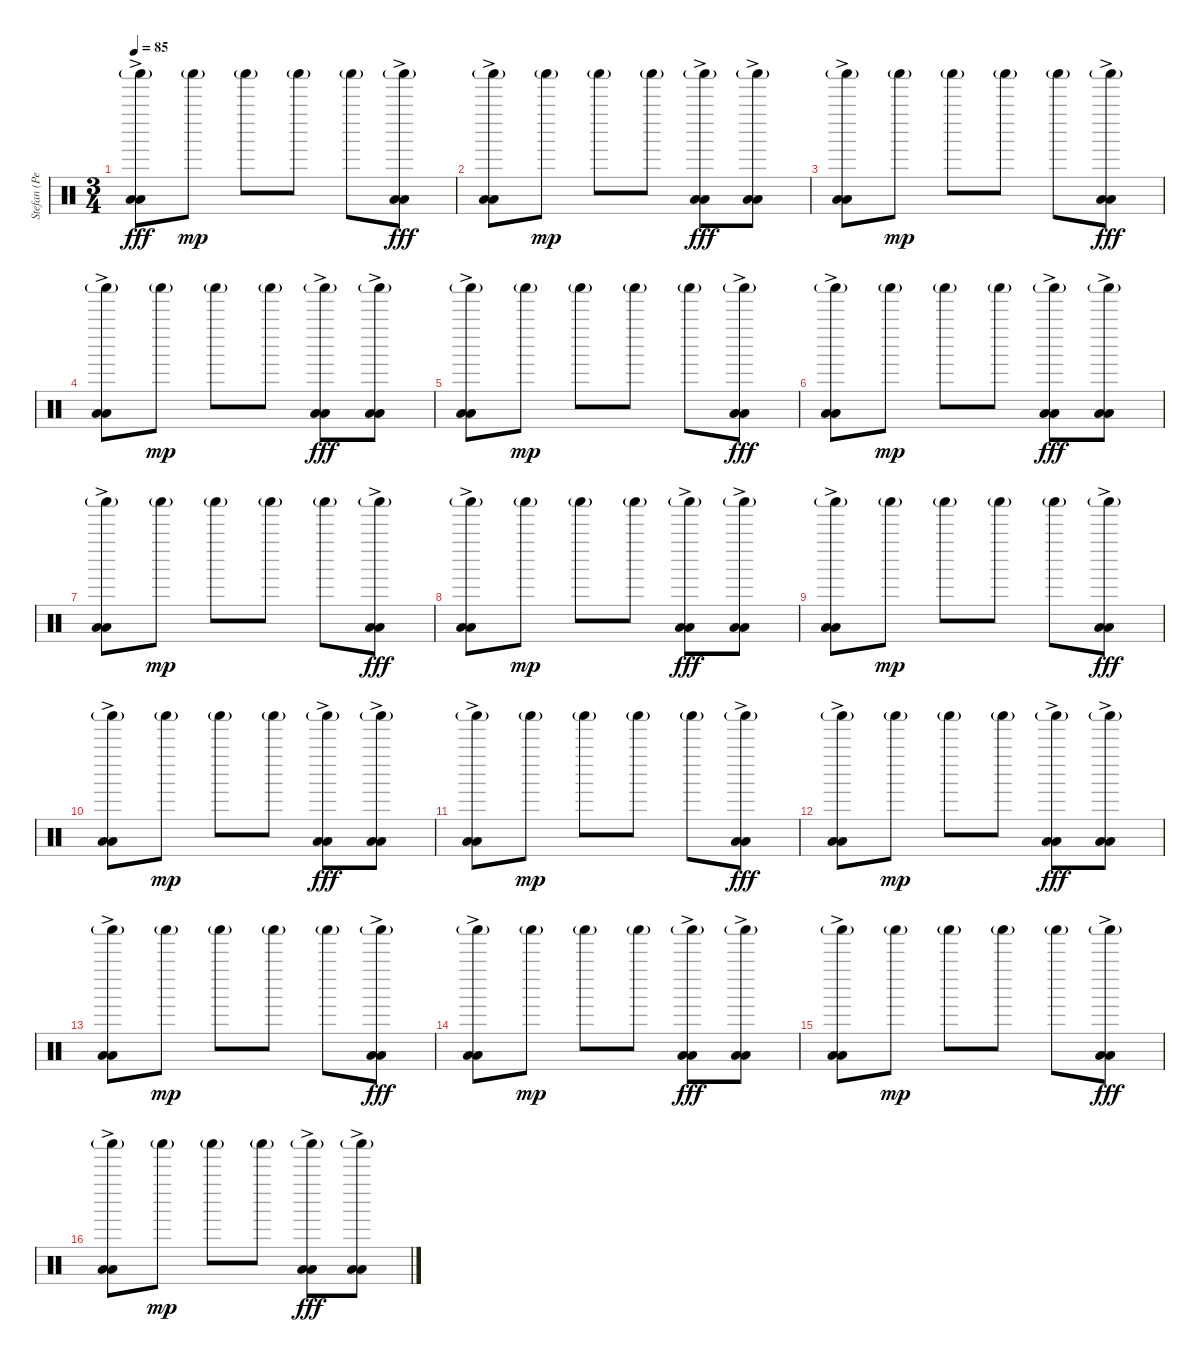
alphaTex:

\track ("Stefan (Percussion)" "Stefan (Pe") {instrument percussion}
\staff {score}
\articulation defaults
\ts (3 4)
\tempo 85
\clef neutral
\ks c
("Shaker (hit)"{g} "Low Floor Tom (hit)"{ac} "Low Floor Tom (hit)"{ac}).8{dy fff} "Shaker (hit)"{g}.8{dy mp} "Shaker (hit)"{g}.8 "Shaker (hit)"{g}.8 "Shaker (hit)"{g}.8 ("Shaker (hit)"{g} "Low Floor Tom (hit)"{ac} "Low Floor Tom (hit)"{ac}).8{dy fff} |
("Shaker (hit)"{g} "Low Floor Tom (hit)"{ac} "Low Floor Tom (hit)"{ac}).8 "Shaker (hit)"{g}.8{dy mp} "Shaker (hit)"{g}.8 "Shaker (hit)"{g}.8 ("Shaker (hit)"{g} "Low Floor Tom (hit)"{ac} "Low Floor Tom (hit)"{ac}).8{dy fff} ("Shaker (hit)"{g} "Low Floor Tom (hit)"{ac} "Low Floor Tom (hit)"{ac}).8 |
("Shaker (hit)"{g} "Low Floor Tom (hit)"{ac} "Low Floor Tom (hit)"{ac}).8 "Shaker (hit)"{g}.8{dy mp} "Shaker (hit)"{g}.8 "Shaker (hit)"{g}.8 "Shaker (hit)"{g}.8 ("Shaker (hit)"{g} "Low Floor Tom (hit)"{ac} "Low Floor Tom (hit)"{ac}).8{dy fff} |
("Shaker (hit)"{g} "Low Floor Tom (hit)"{ac} "Low Floor Tom (hit)"{ac}).8 "Shaker (hit)"{g}.8{dy mp} "Shaker (hit)"{g}.8 "Shaker (hit)"{g}.8 ("Shaker (hit)"{g} "Low Floor Tom (hit)"{ac} "Low Floor Tom (hit)"{ac}).8{dy fff} ("Shaker (hit)"{g} "Low Floor Tom (hit)"{ac} "Low Floor Tom (hit)"{ac}).8 |
("Shaker (hit)"{g} "Low Floor Tom (hit)"{ac} "Low Floor Tom (hit)"{ac}).8 "Shaker (hit)"{g}.8{dy mp} "Shaker (hit)"{g}.8 "Shaker (hit)"{g}.8 "Shaker (hit)"{g}.8 ("Shaker (hit)"{g} "Low Floor Tom (hit)"{ac} "Low Floor Tom (hit)"{ac}).8{dy fff} |
("Shaker (hit)"{g} "Low Floor Tom (hit)"{ac} "Low Floor Tom (hit)"{ac}).8 "Shaker (hit)"{g}.8{dy mp} "Shaker (hit)"{g}.8 "Shaker (hit)"{g}.8 ("Shaker (hit)"{g} "Low Floor Tom (hit)"{ac} "Low Floor Tom (hit)"{ac}).8{dy fff} ("Shaker (hit)"{g} "Low Floor Tom (hit)"{ac} "Low Floor Tom (hit)"{ac}).8 |
("Shaker (hit)"{g} "Low Floor Tom (hit)"{ac} "Low Floor Tom (hit)"{ac}).8 "Shaker (hit)"{g}.8{dy mp} "Shaker (hit)"{g}.8 "Shaker (hit)"{g}.8 "Shaker (hit)"{g}.8 ("Shaker (hit)"{g} "Low Floor Tom (hit)"{ac} "Low Floor Tom (hit)"{ac}).8{dy fff} |
("Shaker (hit)"{g} "Low Floor Tom (hit)"{ac} "Low Floor Tom (hit)"{ac}).8 "Shaker (hit)"{g}.8{dy mp} "Shaker (hit)"{g}.8 "Shaker (hit)"{g}.8 ("Shaker (hit)"{g} "Low Floor Tom (hit)"{ac} "Low Floor Tom (hit)"{ac}).8{dy fff} ("Shaker (hit)"{g} "Low Floor Tom (hit)"{ac} "Low Floor Tom (hit)"{ac}).8 |
("Shaker (hit)"{g} "Low Floor Tom (hit)"{ac} "Low Floor Tom (hit)"{ac}).8 "Shaker (hit)"{g}.8{dy mp} "Shaker (hit)"{g}.8 "Shaker (hit)"{g}.8 "Shaker (hit)"{g}.8 ("Shaker (hit)"{g} "Low Floor Tom (hit)"{ac} "Low Floor Tom (hit)"{ac}).8{dy fff} |
("Shaker (hit)"{g} "Low Floor Tom (hit)"{ac} "Low Floor Tom (hit)"{ac}).8 "Shaker (hit)"{g}.8{dy mp} "Shaker (hit)"{g}.8 "Shaker (hit)"{g}.8 ("Shaker (hit)"{g} "Low Floor Tom (hit)"{ac} "Low Floor Tom (hit)"{ac}).8{dy fff} ("Shaker (hit)"{g} "Low Floor Tom (hit)"{ac} "Low Floor Tom (hit)"{ac}).8 |
("Shaker (hit)"{g} "Low Floor Tom (hit)"{ac} "Low Floor Tom (hit)"{ac}).8 "Shaker (hit)"{g}.8{dy mp} "Shaker (hit)"{g}.8 "Shaker (hit)"{g}.8 "Shaker (hit)"{g}.8 ("Shaker (hit)"{g} "Low Floor Tom (hit)"{ac} "Low Floor Tom (hit)"{ac}).8{dy fff} |
("Shaker (hit)"{g} "Low Floor Tom (hit)"{ac} "Low Floor Tom (hit)"{ac}).8 "Shaker (hit)"{g}.8{dy mp} "Shaker (hit)"{g}.8 "Shaker (hit)"{g}.8 ("Shaker (hit)"{g} "Low Floor Tom (hit)"{ac} "Low Floor Tom (hit)"{ac}).8{dy fff} ("Shaker (hit)"{g} "Low Floor Tom (hit)"{ac} "Low Floor Tom (hit)"{ac}).8 |
("Shaker (hit)"{g} "Low Floor Tom (hit)"{ac} "Low Floor Tom (hit)"{ac}).8 "Shaker (hit)"{g}.8{dy mp} "Shaker (hit)"{g}.8 "Shaker (hit)"{g}.8 "Shaker (hit)"{g}.8 ("Shaker (hit)"{g} "Low Floor Tom (hit)"{ac} "Low Floor Tom (hit)"{ac}).8{dy fff} |
("Shaker (hit)"{g} "Low Floor Tom (hit)"{ac} "Low Floor Tom (hit)"{ac}).8 "Shaker (hit)"{g}.8{dy mp} "Shaker (hit)"{g}.8 "Shaker (hit)"{g}.8 ("Shaker (hit)"{g} "Low Floor Tom (hit)"{ac} "Low Floor Tom (hit)"{ac}).8{dy fff} ("Shaker (hit)"{g} "Low Floor Tom (hit)"{ac} "Low Floor Tom (hit)"{ac}).8 |
("Shaker (hit)"{g} "Low Floor Tom (hit)"{ac} "Low Floor Tom (hit)"{ac}).8 "Shaker (hit)"{g}.8{dy mp} "Shaker (hit)"{g}.8 "Shaker (hit)"{g}.8 "Shaker (hit)"{g}.8 ("Shaker (hit)"{g} "Low Floor Tom (hit)"{ac} "Low Floor Tom (hit)"{ac}).8{dy fff} |
("Shaker (hit)"{g} "Low Floor Tom (hit)"{ac} "Low Floor Tom (hit)"{ac}).8 "Shaker (hit)"{g}.8{dy mp} "Shaker (hit)"{g}.8 "Shaker (hit)"{g}.8 ("Shaker (hit)"{g} "Low Floor Tom (hit)"{ac} "Low Floor Tom (hit)"{ac}).8{dy fff} ("Shaker (hit)"{g} "Low Floor Tom (hit)"{ac} "Low Floor Tom (hit)"{ac}).8
